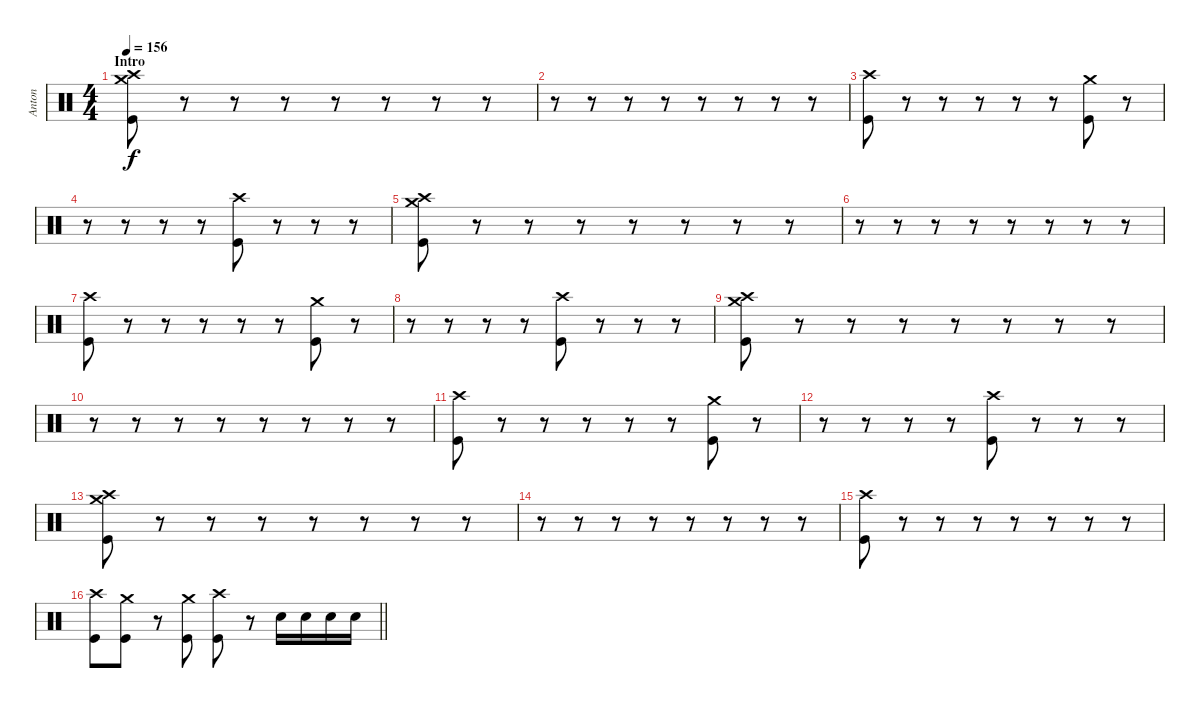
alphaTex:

\track ("Anton " "Anton ") {instrument percussion}
\staff
\articulation defaults
\ts (4 4)
\section ("" "Intro")
\tempo 156
\clef neutral
\ks c
("Kick (hit)" "Crash high (hit)" "Crash medium (hit)").8{dy f} r.8 r.8 r.8 r.8 r.8 r.8 r.8 |
r.8 r.8 r.8 r.8 r.8 r.8 r.8 r.8 |
("Kick (hit)" "Crash high (hit)").8 r.8 r.8 r.8 r.8 r.8 ("Crash medium (hit)" "Kick (hit)").8 r.8 |
r.8 r.8 r.8 r.8 ("Kick (hit)" "Crash high (hit)").8 r.8 r.8 r.8 |
("Kick (hit)" "Crash high (hit)" "Crash medium (hit)").8 r.8 r.8 r.8 r.8 r.8 r.8 r.8 |
r.8 r.8 r.8 r.8 r.8 r.8 r.8 r.8 |
("Kick (hit)" "Crash high (hit)").8 r.8 r.8 r.8 r.8 r.8 ("Crash medium (hit)" "Kick (hit)").8 r.8 |
r.8 r.8 r.8 r.8 ("Kick (hit)" "Crash high (hit)").8 r.8 r.8 r.8 |
("Kick (hit)" "Crash high (hit)" "Crash medium (hit)").8 r.8 r.8 r.8 r.8 r.8 r.8 r.8 |
r.8 r.8 r.8 r.8 r.8 r.8 r.8 r.8 |
("Kick (hit)" "Crash high (hit)").8 r.8 r.8 r.8 r.8 r.8 ("Crash medium (hit)" "Kick (hit)").8 r.8 |
r.8 r.8 r.8 r.8 ("Kick (hit)" "Crash high (hit)").8 r.8 r.8 r.8 |
("Kick (hit)" "Crash high (hit)" "Crash medium (hit)").8 r.8 r.8 r.8 r.8 r.8 r.8 r.8 |
r.8 r.8 r.8 r.8 r.8 r.8 r.8 r.8 |
("Kick (hit)" "Crash high (hit)").8 r.8 r.8 r.8 r.8 r.8 r.8 r.8 |
\barLineRight lightlight
("Kick (hit)" "Crash high (hit)").8 ("Kick (hit)" "Crash medium (hit)").8 r.8 ("Kick (hit)" "Crash medium (hit)").8 ("Kick (hit)" "Crash high (hit)").8 r.8 "Snare (hit) 2".16 "Snare (hit) 2".16 "Snare (hit) 2".16 "Snare (hit) 2".16
